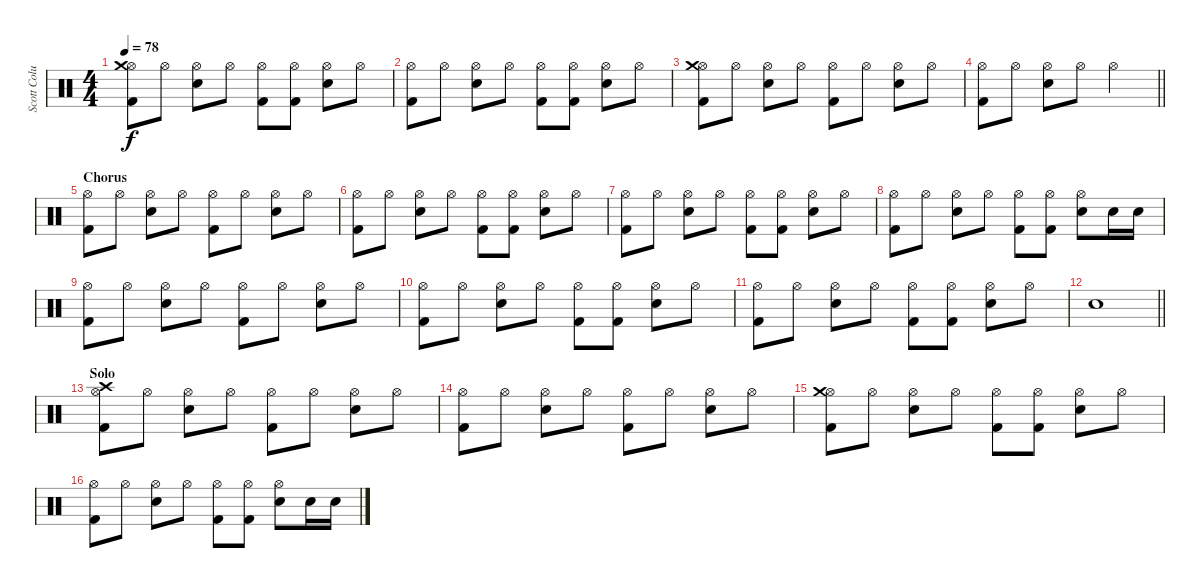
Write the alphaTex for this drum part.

\track ("Scott Columbus" "Scott Colu") {instrument percussion}
\staff {score}
\articulation defaults
\ts (4 4)
\tempo 78
\clef neutral
\ks c
("Kick (hit) 2" "Hi-Hat (open)" "Crash medium (hit)").8{dy f} "Hi-Hat (open)".8 ("Electric Snare (hit)" "Hi-Hat (open)").8 "Hi-Hat (open)".8 ("Kick (hit) 2" "Hi-Hat (open)").8 ("Kick (hit) 2" "Hi-Hat (open)").8 ("Electric Snare (hit)" "Hi-Hat (open)").8 "Hi-Hat (open)".8 |
("Kick (hit) 2" "Hi-Hat (open)").8 "Hi-Hat (open)".8 ("Electric Snare (hit)" "Hi-Hat (open)").8 "Hi-Hat (open)".8 ("Kick (hit) 2" "Hi-Hat (open)").8 ("Kick (hit) 2" "Hi-Hat (open)").8 ("Electric Snare (hit)" "Hi-Hat (open)").8 "Hi-Hat (open)".8 |
("Kick (hit) 2" "Hi-Hat (open)" "Crash medium (hit)").8 "Hi-Hat (open)".8 ("Electric Snare (hit)" "Hi-Hat (open)").8 "Hi-Hat (open)".8 ("Kick (hit) 2" "Hi-Hat (open)").8 "Hi-Hat (open)".8 ("Electric Snare (hit)" "Hi-Hat (open)").8 "Hi-Hat (open)".8 |
\barLineRight lightlight
("Kick (hit) 2" "Hi-Hat (open)").8 "Hi-Hat (open)".8 ("Electric Snare (hit)" "Hi-Hat (open)").8 "Hi-Hat (open)".8 "Hi-Hat (open)".2 |
\section ("" "Chorus")
("Kick (hit) 2" "Hi-Hat (open)").8 "Hi-Hat (open)".8 ("Electric Snare (hit)" "Hi-Hat (open)").8 "Hi-Hat (open)".8 ("Kick (hit) 2" "Hi-Hat (open)").8 "Hi-Hat (open)".8 ("Electric Snare (hit)" "Hi-Hat (open)").8 "Hi-Hat (open)".8 |
("Kick (hit) 2" "Hi-Hat (open)").8 "Hi-Hat (open)".8 ("Electric Snare (hit)" "Hi-Hat (open)").8 "Hi-Hat (open)".8 ("Kick (hit) 2" "Hi-Hat (open)").8 ("Kick (hit) 2" "Hi-Hat (open)").8 ("Electric Snare (hit)" "Hi-Hat (open)").8 "Hi-Hat (open)".8 |
("Kick (hit) 2" "Hi-Hat (open)").8 "Hi-Hat (open)".8 ("Electric Snare (hit)" "Hi-Hat (open)").8 "Hi-Hat (open)".8 ("Kick (hit) 2" "Hi-Hat (open)").8 ("Kick (hit) 2" "Hi-Hat (open)").8 ("Electric Snare (hit)" "Hi-Hat (open)").8 "Hi-Hat (open)".8 |
("Kick (hit) 2" "Hi-Hat (open)").8 "Hi-Hat (open)".8 ("Electric Snare (hit)" "Hi-Hat (open)").8 "Hi-Hat (open)".8 ("Kick (hit) 2" "Hi-Hat (open)").8 ("Kick (hit) 2" "Hi-Hat (open)").8 ("Electric Snare (hit)" "Hi-Hat (open)").8 "Electric Snare (hit)".16 "Electric Snare (hit)".16 |
("Kick (hit) 2" "Hi-Hat (open)").8 "Hi-Hat (open)".8 ("Electric Snare (hit)" "Hi-Hat (open)").8 "Hi-Hat (open)".8 ("Kick (hit) 2" "Hi-Hat (open)").8 "Hi-Hat (open)".8 ("Electric Snare (hit)" "Hi-Hat (open)").8 "Hi-Hat (open)".8 |
("Kick (hit) 2" "Hi-Hat (open)").8 "Hi-Hat (open)".8 ("Electric Snare (hit)" "Hi-Hat (open)").8 "Hi-Hat (open)".8 ("Kick (hit) 2" "Hi-Hat (open)").8 ("Kick (hit) 2" "Hi-Hat (open)").8 ("Electric Snare (hit)" "Hi-Hat (open)").8 "Hi-Hat (open)".8 |
("Kick (hit) 2" "Hi-Hat (open)").8 "Hi-Hat (open)".8 ("Electric Snare (hit)" "Hi-Hat (open)").8 "Hi-Hat (open)".8 ("Kick (hit) 2" "Hi-Hat (open)").8 ("Kick (hit) 2" "Hi-Hat (open)").8 ("Electric Snare (hit)" "Hi-Hat (open)").8 "Hi-Hat (open)".8 |
\barLineRight lightlight "Electric Snare (hit)".1
|
\section ("" "Solo")
("Kick (hit) 2" "Hi-Hat (open)" "Crash high (hit)").8 "Hi-Hat (open)".8 ("Electric Snare (hit)" "Hi-Hat (open)").8 "Hi-Hat (open)".8 ("Kick (hit) 2" "Hi-Hat (open)").8 "Hi-Hat (open)".8 ("Electric Snare (hit)" "Hi-Hat (open)").8 "Hi-Hat (open)".8 |
("Kick (hit) 2" "Hi-Hat (open)").8 "Hi-Hat (open)".8 ("Electric Snare (hit)" "Hi-Hat (open)").8 "Hi-Hat (open)".8 ("Kick (hit) 2" "Hi-Hat (open)").8 "Hi-Hat (open)".8 ("Electric Snare (hit)" "Hi-Hat (open)").8 "Hi-Hat (open)".8 |
("Kick (hit) 2" "Hi-Hat (open)" "Crash medium (hit)").8 "Hi-Hat (open)".8 ("Electric Snare (hit)" "Hi-Hat (open)").8 "Hi-Hat (open)".8 ("Kick (hit) 2" "Hi-Hat (open)").8 ("Kick (hit) 2" "Hi-Hat (open)").8 ("Electric Snare (hit)" "Hi-Hat (open)").8 "Hi-Hat (open)".8 |
("Kick (hit) 2" "Hi-Hat (open)").8 "Hi-Hat (open)".8 ("Electric Snare (hit)" "Hi-Hat (open)").8 "Hi-Hat (open)".8 ("Kick (hit) 2" "Hi-Hat (open)").8 ("Kick (hit) 2" "Hi-Hat (open)").8 ("Electric Snare (hit)" "Hi-Hat (open)").8 "Electric Snare (hit)".16 "Electric Snare (hit)".16
